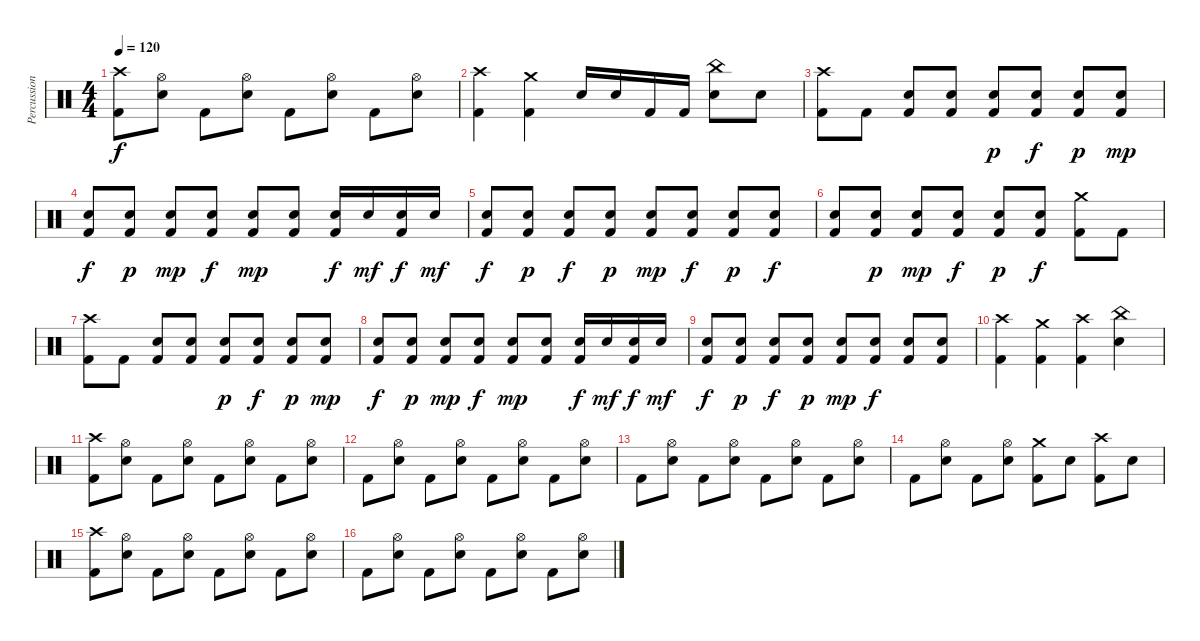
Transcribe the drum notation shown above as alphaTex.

\track ("Percussion" "Percussion") {instrument percussion}
\staff {score}
\articulation defaults
\ts (4 4)
\tempo 120
\clef neutral
\ks c
("Crash high (hit)" "Kick (hit) 2").8{dy f} ("Hi-Hat (open)" "Electric Snare (hit)").8 "Kick (hit) 2".8 ("Hi-Hat (open)" "Electric Snare (hit)").8 "Kick (hit) 2".8 ("Hi-Hat (open)" "Electric Snare (hit)").8 "Kick (hit) 2".8 ("Hi-Hat (open)" "Electric Snare (hit)").8 |
("Crash high (hit)" "Kick (hit) 2").4 ("Crash medium (hit)" "Kick (hit) 2").4 "Electric Snare (hit)".16 "Electric Snare (hit)".16 "Kick (hit) 2".16 "Kick (hit) 2".16 ("China (hit)" "Electric Snare (hit)").8 "Electric Snare (hit)".8 |
("Crash high (hit)" "Kick (hit) 2").8 "Kick (hit) 2".8 ("Electric Snare (hit)" "Kick (hit) 2").8 ("Electric Snare (hit)" "Kick (hit) 2").8 ("Electric Snare (hit)" "Kick (hit) 2").8{dy p} ("Electric Snare (hit)" "Kick (hit) 2").8{dy f} ("Electric Snare (hit)" "Kick (hit) 2").8{dy p} ("Electric Snare (hit)" "Kick (hit) 2").8{dy mp} |
("Electric Snare (hit)" "Kick (hit) 2").8{dy f} ("Electric Snare (hit)" "Kick (hit) 2").8{dy p} ("Electric Snare (hit)" "Kick (hit) 2").8{dy mp} ("Electric Snare (hit)" "Kick (hit) 2").8{dy f} ("Electric Snare (hit)" "Kick (hit) 2").8{dy mp} ("Electric Snare (hit)" "Kick (hit) 2").8 ("Electric Snare (hit)" "Kick (hit) 2").16{dy f} "Electric Snare (hit)".16{dy mf} ("Electric Snare (hit)" "Kick (hit) 2").16{dy f} "Electric Snare (hit)".16{dy mf} |
("Electric Snare (hit)" "Kick (hit) 2").8{dy f} ("Electric Snare (hit)" "Kick (hit) 2").8{dy p} ("Electric Snare (hit)" "Kick (hit) 2").8{dy f} ("Electric Snare (hit)" "Kick (hit) 2").8{dy p} ("Electric Snare (hit)" "Kick (hit) 2").8{dy mp} ("Electric Snare (hit)" "Kick (hit) 2").8{dy f} ("Electric Snare (hit)" "Kick (hit) 2").8{dy p} ("Electric Snare (hit)" "Kick (hit) 2").8{dy f} |
("Electric Snare (hit)" "Kick (hit) 2").8 ("Electric Snare (hit)" "Kick (hit) 2").8{dy p} ("Electric Snare (hit)" "Kick (hit) 2").8{dy mp} ("Electric Snare (hit)" "Kick (hit) 2").8{dy f} ("Electric Snare (hit)" "Kick (hit) 2").8{dy p} ("Electric Snare (hit)" "Kick (hit) 2").8{dy f} ("Crash medium (hit)" "Kick (hit) 2").8 "Kick (hit) 2".8 |
("Crash high (hit)" "Kick (hit) 2").8 "Kick (hit) 2".8 ("Electric Snare (hit)" "Kick (hit) 2").8 ("Electric Snare (hit)" "Kick (hit) 2").8 ("Electric Snare (hit)" "Kick (hit) 2").8{dy p} ("Electric Snare (hit)" "Kick (hit) 2").8{dy f} ("Electric Snare (hit)" "Kick (hit) 2").8{dy p} ("Electric Snare (hit)" "Kick (hit) 2").8{dy mp} |
("Electric Snare (hit)" "Kick (hit) 2").8{dy f} ("Electric Snare (hit)" "Kick (hit) 2").8{dy p} ("Electric Snare (hit)" "Kick (hit) 2").8{dy mp} ("Electric Snare (hit)" "Kick (hit) 2").8{dy f} ("Electric Snare (hit)" "Kick (hit) 2").8{dy mp} ("Electric Snare (hit)" "Kick (hit) 2").8 ("Electric Snare (hit)" "Kick (hit) 2").16{dy f} "Electric Snare (hit)".16{dy mf} ("Electric Snare (hit)" "Kick (hit) 2").16{dy f} "Electric Snare (hit)".16{dy mf} |
("Electric Snare (hit)" "Kick (hit) 2").8{dy f} ("Electric Snare (hit)" "Kick (hit) 2").8{dy p} ("Electric Snare (hit)" "Kick (hit) 2").8{dy f} ("Electric Snare (hit)" "Kick (hit) 2").8{dy p} ("Electric Snare (hit)" "Kick (hit) 2").8{dy mp} ("Electric Snare (hit)" "Kick (hit) 2").8{dy f} ("Electric Snare (hit)" "Kick (hit) 2").8 ("Electric Snare (hit)" "Kick (hit) 2").8 |
("Crash high (hit)" "Kick (hit) 2").4 ("Crash medium (hit)" "Kick (hit) 2").4 ("Crash high (hit)" "Kick (hit) 2").4 ("China (hit)" "Electric Snare (hit)").4 |
("Crash high (hit)" "Kick (hit) 2").8 ("Hi-Hat (open)" "Electric Snare (hit)").8 "Kick (hit) 2".8 ("Hi-Hat (open)" "Electric Snare (hit)").8 "Kick (hit) 2".8 ("Hi-Hat (open)" "Electric Snare (hit)").8 "Kick (hit) 2".8 ("Hi-Hat (open)" "Electric Snare (hit)").8 |
"Kick (hit) 2".8 ("Hi-Hat (open)" "Electric Snare (hit)").8 "Kick (hit) 2".8 ("Hi-Hat (open)" "Electric Snare (hit)").8 "Kick (hit) 2".8 ("Hi-Hat (open)" "Electric Snare (hit)").8 "Kick (hit) 2".8 ("Hi-Hat (open)" "Electric Snare (hit)").8 |
"Kick (hit) 2".8 ("Hi-Hat (open)" "Electric Snare (hit)").8 "Kick (hit) 2".8 ("Hi-Hat (open)" "Electric Snare (hit)").8 "Kick (hit) 2".8 ("Hi-Hat (open)" "Electric Snare (hit)").8 "Kick (hit) 2".8 ("Hi-Hat (open)" "Electric Snare (hit)").8 |
"Kick (hit) 2".8 ("Hi-Hat (open)" "Electric Snare (hit)").8 "Kick (hit) 2".8 ("Hi-Hat (open)" "Electric Snare (hit)").8 ("Crash medium (hit)" "Kick (hit) 2").8 "Electric Snare (hit)".8 ("Crash high (hit)" "Kick (hit) 2").8 "Electric Snare (hit)".8 |
("Crash high (hit)" "Kick (hit) 2").8 ("Hi-Hat (open)" "Electric Snare (hit)").8 "Kick (hit) 2".8 ("Hi-Hat (open)" "Electric Snare (hit)").8 "Kick (hit) 2".8 ("Hi-Hat (open)" "Electric Snare (hit)").8 "Kick (hit) 2".8 ("Hi-Hat (open)" "Electric Snare (hit)").8 |
"Kick (hit) 2".8 ("Hi-Hat (open)" "Electric Snare (hit)").8 "Kick (hit) 2".8 ("Hi-Hat (open)" "Electric Snare (hit)").8 "Kick (hit) 2".8 ("Hi-Hat (open)" "Electric Snare (hit)").8 "Kick (hit) 2".8 ("Hi-Hat (open)" "Electric Snare (hit)").8
